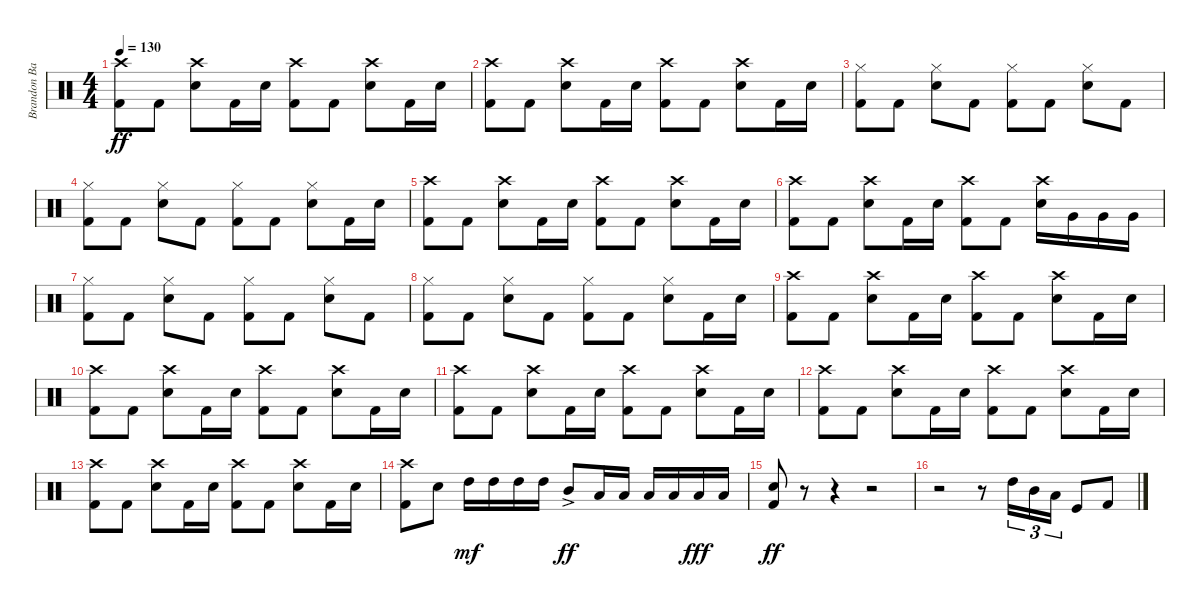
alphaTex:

\track ("Brandon Barnes - Drums" "Brandon Ba") {instrument percussion}
\staff {score}
\articulation defaults
\ts (4 4)
\tempo 130
\clef neutral
\ks c
("Crash high (hit)" "Kick (hit) 2").8{dy ff} "Kick (hit) 2".8 ("Snare (hit) 2" "Crash high (hit)").8 "Kick (hit) 2".16 "Snare (hit) 2".16 ("Crash high (hit)" "Kick (hit) 2").8 "Kick (hit) 2".8 ("Snare (hit) 2" "Crash high (hit)").8 "Kick (hit) 2".16 "Snare (hit) 2".16 |
("Crash high (hit)" "Kick (hit) 2").8 "Kick (hit) 2".8 ("Snare (hit) 2" "Crash high (hit)").8 "Kick (hit) 2".16 "Snare (hit) 2".16 ("Crash high (hit)" "Kick (hit) 2").8 "Kick (hit) 2".8 ("Snare (hit) 2" "Crash high (hit)").8 "Kick (hit) 2".16 "Snare (hit) 2".16 |
("Hi-Hat (closed)" "Kick (hit) 2").8 "Kick (hit) 2".8 ("Snare (hit) 2" "Hi-Hat (closed)").8 "Kick (hit) 2".8 ("Kick (hit) 2" "Hi-Hat (closed)").8 "Kick (hit) 2".8 ("Snare (hit) 2" "Hi-Hat (closed)").8 "Kick (hit) 2".8 |
("Hi-Hat (closed)" "Kick (hit) 2").8 "Kick (hit) 2".8 ("Snare (hit) 2" "Hi-Hat (closed)").8 "Kick (hit) 2".8 ("Kick (hit) 2" "Hi-Hat (closed)").8 "Kick (hit) 2".8 ("Snare (hit) 2" "Hi-Hat (closed)").8 "Kick (hit) 2".16 "Snare (hit) 2".16 |
("Crash high (hit)" "Kick (hit) 2").8 "Kick (hit) 2".8 ("Snare (hit) 2" "Crash high (hit)").8 "Kick (hit) 2".16 "Snare (hit) 2".16 ("Crash high (hit)" "Kick (hit) 2").8 "Kick (hit) 2".8 ("Snare (hit) 2" "Crash high (hit)").8 "Kick (hit) 2".16 "Snare (hit) 2".16 |
("Crash high (hit)" "Kick (hit) 2").8 "Kick (hit) 2".8 ("Snare (hit) 2" "Crash high (hit)").8 "Kick (hit) 2".16 "Snare (hit) 2".16 ("Crash high (hit)" "Kick (hit) 2").8 "Kick (hit) 2".8 ("Snare (hit) 2" "Crash high (hit)").16 "Very Low Tom (hit)".16 "Very Low Tom (hit)".16 "Very Low Tom (hit)".16 |
("Hi-Hat (closed)" "Kick (hit) 2").8 "Kick (hit) 2".8 ("Snare (hit) 2" "Hi-Hat (closed)").8 "Kick (hit) 2".8 ("Kick (hit) 2" "Hi-Hat (closed)").8 "Kick (hit) 2".8 ("Snare (hit) 2" "Hi-Hat (closed)").8 "Kick (hit) 2".8 |
("Hi-Hat (closed)" "Kick (hit) 2").8 "Kick (hit) 2".8 ("Snare (hit) 2" "Hi-Hat (closed)").8 "Kick (hit) 2".8 ("Kick (hit) 2" "Hi-Hat (closed)").8 "Kick (hit) 2".8 ("Snare (hit) 2" "Hi-Hat (closed)").8 "Kick (hit) 2".16 "Snare (hit) 2".16 |
("Crash high (hit)" "Kick (hit) 2").8 "Kick (hit) 2".8 ("Snare (hit) 2" "Crash high (hit)").8 "Kick (hit) 2".16 "Snare (hit) 2".16 ("Crash high (hit)" "Kick (hit) 2").8 "Kick (hit) 2".8 ("Snare (hit) 2" "Crash high (hit)").8 "Kick (hit) 2".16 "Snare (hit) 2".16 |
("Crash high (hit)" "Kick (hit) 2").8 "Kick (hit) 2".8 ("Snare (hit) 2" "Crash high (hit)").8 "Kick (hit) 2".16 "Snare (hit) 2".16 ("Crash high (hit)" "Kick (hit) 2").8 "Kick (hit) 2".8 ("Snare (hit) 2" "Crash high (hit)").8 "Kick (hit) 2".16 "Snare (hit) 2".16 |
("Crash high (hit)" "Kick (hit) 2").8 "Kick (hit) 2".8 ("Snare (hit) 2" "Crash high (hit)").8 "Kick (hit) 2".16 "Snare (hit) 2".16 ("Crash high (hit)" "Kick (hit) 2").8 "Kick (hit) 2".8 ("Snare (hit) 2" "Crash high (hit)").8 "Kick (hit) 2".16 "Snare (hit) 2".16 |
("Crash high (hit)" "Kick (hit) 2").8 "Kick (hit) 2".8 ("Snare (hit) 2" "Crash high (hit)").8 "Kick (hit) 2".16 "Snare (hit) 2".16 ("Crash high (hit)" "Kick (hit) 2").8 "Kick (hit) 2".8 ("Snare (hit) 2" "Crash high (hit)").8 "Kick (hit) 2".16 "Snare (hit) 2".16 |
("Crash high (hit)" "Kick (hit) 2").8 "Kick (hit) 2".8 ("Snare (hit) 2" "Crash high (hit)").8 "Kick (hit) 2".16 "Snare (hit) 2".16 ("Crash high (hit)" "Kick (hit) 2").8 "Kick (hit) 2".8 ("Snare (hit) 2" "Crash high (hit)").8 "Kick (hit) 2".16 "Snare (hit) 2".16 |
("Crash high (hit)" "Kick (hit) 2").8 "Snare (hit) 2".8 "High Tom (hit)".16{dy mf} "High Tom (hit)".16 "High Tom (hit)".16 "High Tom (hit)".16 "Mid Tom (hit)"{ac}.8{dy ff} "Low Tom (hit)".16 "Low Tom (hit)".16 "Low Tom (hit)".16 "Low Tom (hit)".16 "Low Floor Tom (hit)".16{dy fff} "Low Floor Tom (hit)".16 |
("Kick (hit) 2" "Snare (hit) 2").8{dy ff} r.8 r.4 r.2 |
r.2 r.8 "High Tom (hit)".16{tu (3 2)} "Mid Tom (hit)".16{tu (3 2)} "Low Tom (hit)".16{tu (3 2)} "Kick (hit)".8 "Kick (hit) 2".8
